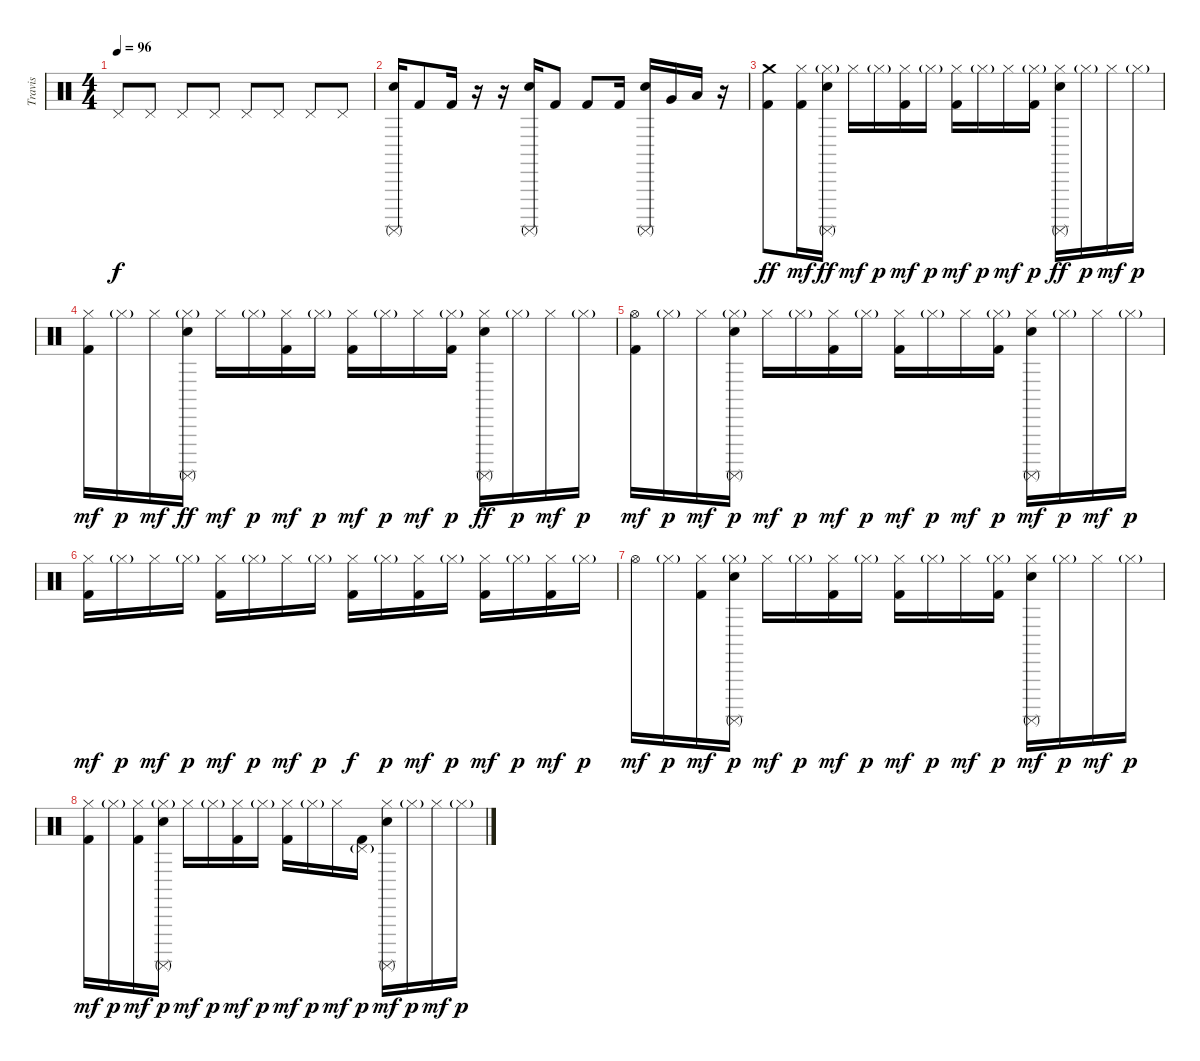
\track ("Travis" "Travis") {instrument percussion bank 127}
\staff {score}
\articulation defaults
\ts (4 4)
\tempo 96
\clef neutral
\ks c "Pedal Hi-Hat (hit)".8{dy f} "Pedal Hi-Hat (hit)".8 "Pedal Hi-Hat (hit)".8 "Pedal Hi-Hat (hit)".8 "Pedal Hi-Hat (hit)".8 "Pedal Hi-Hat (hit)".8 "Pedal Hi-Hat (hit)".8 "Pedal Hi-Hat (hit)".8
|
("Electric Snare (hit)" "Surdo (mute)").16 "Kick (hit) 2".8 "Kick (hit) 2".16 r.16 r.16 ("Electric Snare (hit)" "Surdo (mute)").16 "Kick (hit) 2".8 "Kick (hit) 2".8 "Kick (hit) 2".16 ("Electric Snare (hit)" "Surdo (mute)").16 "Very Low Tom (hit)".16 "Low Floor Tom (hit)".16 r.16 |
("Crash medium (hit)" "Kick (hit) 2").8{dy ff} ("Hi-Hat (closed)" "Kick (hit) 2").16{dy mf} ("Hi-Hat (closed)"{g} "Electric Snare (hit)" "Surdo (mute)").16{dy ff} "Hi-Hat (closed)".16{dy mf} "Hi-Hat (closed)"{g}.16{dy p} ("Hi-Hat (closed)" "Kick (hit) 2").16{dy mf} "Hi-Hat (closed)"{g}.16{dy p} ("Hi-Hat (closed)" "Kick (hit) 2").16{dy mf} "Hi-Hat (closed)"{g}.16{dy p} "Hi-Hat (closed)".16{dy mf} ("Hi-Hat (closed)"{g} "Kick (hit) 2").16{dy p} ("Hi-Hat (closed)" "Electric Snare (hit)" "Surdo (mute)").16{dy ff} "Hi-Hat (closed)"{g}.16{dy p} "Hi-Hat (closed)".16{dy mf} "Hi-Hat (closed)"{g}.16{dy p} |
("Hi-Hat (closed)" "Kick (hit) 2").16{dy mf} "Hi-Hat (closed)"{g}.16{dy p} "Hi-Hat (closed)".16{dy mf} ("Hi-Hat (closed)"{g} "Electric Snare (hit)" "Surdo (mute)").16{dy ff} "Hi-Hat (closed)".16{dy mf} "Hi-Hat (closed)"{g}.16{dy p} ("Hi-Hat (closed)" "Kick (hit) 2").16{dy mf} "Hi-Hat (closed)"{g}.16{dy p} ("Hi-Hat (closed)" "Kick (hit) 2").16{dy mf} "Hi-Hat (closed)"{g}.16{dy p} "Hi-Hat (closed)".16{dy mf} ("Hi-Hat (closed)"{g} "Kick (hit) 2").16{dy p} ("Hi-Hat (closed)" "Electric Snare (hit)" "Surdo (mute)").16{dy ff} "Hi-Hat (closed)"{g}.16{dy p} "Hi-Hat (closed)".16{dy mf} "Hi-Hat (closed)"{g}.16{dy p} |
("Hi-Hat (open)" "Kick (hit) 2").16{dy mf} "Hi-Hat (closed)"{g}.16{dy p} "Hi-Hat (closed)".16{dy mf} ("Hi-Hat (closed)"{g} "Electric Snare (hit)" "Surdo (mute)").16{dy p} "Hi-Hat (closed)".16{dy mf} "Hi-Hat (closed)"{g}.16{dy p} ("Hi-Hat (closed)" "Kick (hit) 2").16{dy mf} "Hi-Hat (closed)"{g}.16{dy p} ("Hi-Hat (closed)" "Kick (hit) 2").16{dy mf} "Hi-Hat (closed)"{g}.16{dy p} "Hi-Hat (closed)".16{dy mf} ("Hi-Hat (closed)"{g} "Kick (hit) 2").16{dy p} ("Hi-Hat (closed)" "Electric Snare (hit)" "Surdo (mute)").16{dy mf} "Hi-Hat (closed)"{g}.16{dy p} "Hi-Hat (closed)".16{dy mf} "Hi-Hat (closed)"{g}.16{dy p} |
("Hi-Hat (closed)" "Kick (hit) 2").16{dy mf} "Hi-Hat (closed)"{g}.16{dy p} "Hi-Hat (closed)".16{dy mf} "Hi-Hat (closed)"{g}.16{dy p} ("Hi-Hat (closed)" "Kick (hit) 2").16{dy mf} "Hi-Hat (closed)"{g}.16{dy p} "Hi-Hat (closed)".16{dy mf} "Hi-Hat (closed)"{g}.16{dy p} ("Hi-Hat (closed)" "Kick (hit) 2").16{dy f} "Hi-Hat (closed)"{g}.16{dy p} ("Hi-Hat (closed)" "Kick (hit) 2").16{dy mf} "Hi-Hat (closed)"{g}.16{dy p} ("Hi-Hat (closed)" "Kick (hit) 2").16{dy mf} "Hi-Hat (closed)"{g}.16{dy p} ("Hi-Hat (closed)" "Kick (hit) 2").16{dy mf} "Hi-Hat (closed)"{g}.16{dy p} |
"Hi-Hat (open)".16{dy mf} "Hi-Hat (closed)"{g}.16{dy p} ("Hi-Hat (closed)" "Kick (hit) 2").16{dy mf} ("Hi-Hat (closed)"{g} "Electric Snare (hit)" "Surdo (mute)").16{dy p} "Hi-Hat (closed)".16{dy mf} "Hi-Hat (closed)"{g}.16{dy p} ("Hi-Hat (closed)" "Kick (hit) 2").16{dy mf} "Hi-Hat (closed)"{g}.16{dy p} ("Hi-Hat (closed)" "Kick (hit) 2").16{dy mf} "Hi-Hat (closed)"{g}.16{dy p} "Hi-Hat (closed)".16{dy mf} ("Hi-Hat (closed)"{g} "Kick (hit) 2").16{dy p} ("Hi-Hat (closed)" "Electric Snare (hit)" "Surdo (mute)").16{dy mf} "Hi-Hat (closed)"{g}.16{dy p} "Hi-Hat (closed)".16{dy mf} "Hi-Hat (closed)"{g}.16{dy p} |
("Hi-Hat (closed)" "Kick (hit) 2").16{dy mf} "Hi-Hat (closed)"{g}.16{dy p} ("Hi-Hat (closed)" "Kick (hit) 2").16{dy mf} ("Hi-Hat (closed)"{g} "Electric Snare (hit)" "Surdo (mute)").16{dy p} "Hi-Hat (closed)".16{dy mf} "Hi-Hat (closed)"{g}.16{dy p} ("Hi-Hat (closed)" "Kick (hit) 2").16{dy mf} "Hi-Hat (closed)"{g}.16{dy p} ("Hi-Hat (closed)" "Kick (hit) 2").16{dy mf} "Hi-Hat (closed)"{g}.16{dy p} "Hi-Hat (closed)".16{dy mf} ("Pedal Hi-Hat (hit)"{g} "Kick (hit) 2").16{dy p} ("Hi-Hat (closed)" "Electric Snare (hit)" "Surdo (mute)").16{dy mf} "Hi-Hat (closed)"{g}.16{dy p} "Hi-Hat (closed)".16{dy mf} "Hi-Hat (closed)"{g}.16{dy p}
